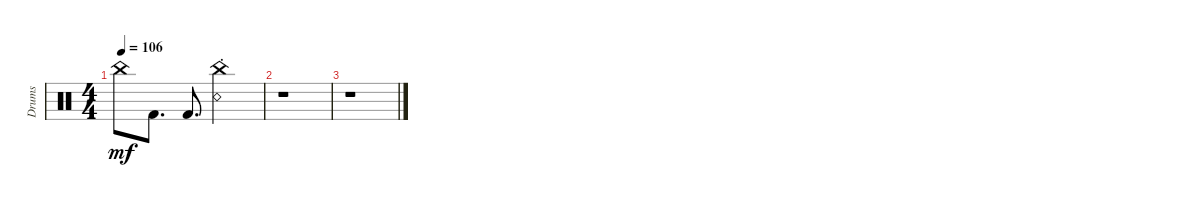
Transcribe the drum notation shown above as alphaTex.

\track ("Drums" "Drums") {instrument percussion}
\staff {score}
\articulation defaults
\ts (4 4)
\tempo 106
\clef neutral
\ks c "China (hit)".8{dy mf} "Kick (hit) 2".8{d} "Kick (hit) 2".8{d}
("China (hit)"{st} "Snare (rim shot)").2 |
r.1 |
r.1
